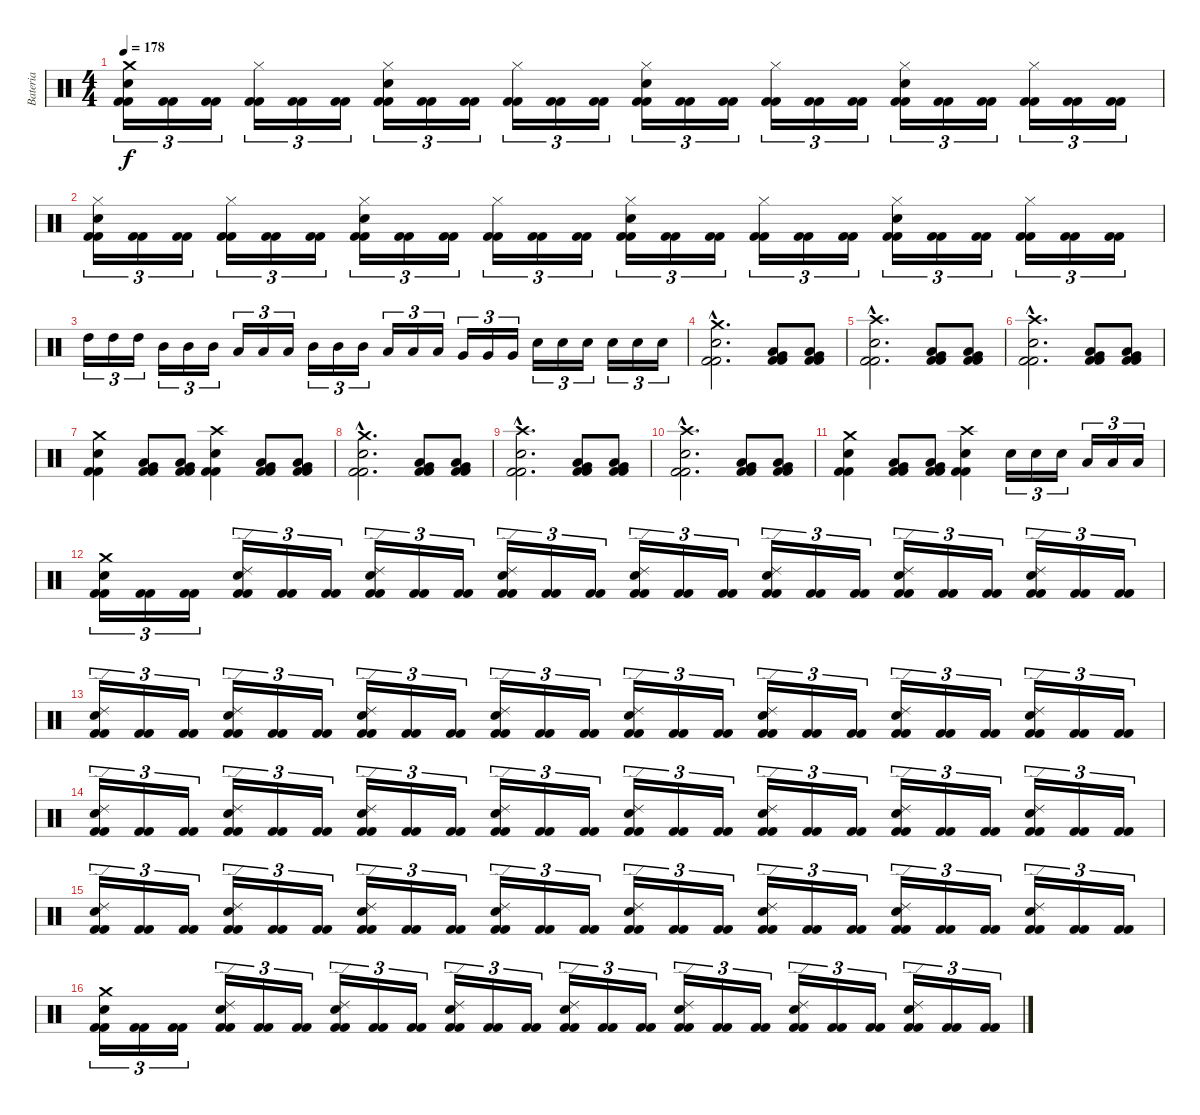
\track ("Bateria" "Bateria") {instrument percussion}
\staff {score}
\articulation defaults
\ts (4 4)
\tempo 178
\clef neutral
\ks c
("Kick (hit) 2" "Kick (hit) 2" "Snare (hit) 2" "Crash medium (hit)").16{tu (3 2) dy f} ("Kick (hit) 2" "Kick (hit) 2").16{tu (3 2)} ("Kick (hit) 2" "Kick (hit) 2").16{tu (3 2)} ("Kick (hit) 2" "Kick (hit) 2" "Hi-Hat (closed)").16{tu (3 2)} ("Kick (hit) 2" "Kick (hit) 2").16{tu (3 2)} ("Kick (hit) 2" "Kick (hit) 2").16{tu (3 2)} ("Kick (hit) 2" "Kick (hit) 2" "Snare (hit) 2" "Hi-Hat (closed)").16{tu (3 2)} ("Kick (hit) 2" "Kick (hit) 2").16{tu (3 2)} ("Kick (hit) 2" "Kick (hit) 2").16{tu (3 2)} ("Kick (hit) 2" "Kick (hit) 2" "Hi-Hat (closed)").16{tu (3 2)} ("Kick (hit) 2" "Kick (hit) 2").16{tu (3 2)} ("Kick (hit) 2" "Kick (hit) 2").16{tu (3 2)} ("Kick (hit) 2" "Kick (hit) 2" "Snare (hit) 2" "Hi-Hat (closed)").16{tu (3 2)} ("Kick (hit) 2" "Kick (hit) 2").16{tu (3 2)} ("Kick (hit) 2" "Kick (hit) 2").16{tu (3 2)} ("Kick (hit) 2" "Kick (hit) 2" "Hi-Hat (closed)").16{tu (3 2)} ("Kick (hit) 2" "Kick (hit) 2").16{tu (3 2)} ("Kick (hit) 2" "Kick (hit) 2").16{tu (3 2)} ("Kick (hit) 2" "Kick (hit) 2" "Snare (hit) 2" "Hi-Hat (closed)").16{tu (3 2)} ("Kick (hit) 2" "Kick (hit) 2").16{tu (3 2)} ("Kick (hit) 2" "Kick (hit) 2").16{tu (3 2)} ("Kick (hit) 2" "Kick (hit) 2" "Hi-Hat (closed)").16{tu (3 2)} ("Kick (hit) 2" "Kick (hit) 2").16{tu (3 2)} ("Kick (hit) 2" "Kick (hit) 2").16{tu (3 2)} |
("Kick (hit) 2" "Kick (hit) 2" "Snare (hit) 2" "Hi-Hat (closed)").16{tu (3 2)} ("Kick (hit) 2" "Kick (hit) 2").16{tu (3 2)} ("Kick (hit) 2" "Kick (hit) 2").16{tu (3 2)} ("Kick (hit) 2" "Kick (hit) 2" "Hi-Hat (closed)").16{tu (3 2)} ("Kick (hit) 2" "Kick (hit) 2").16{tu (3 2)} ("Kick (hit) 2" "Kick (hit) 2").16{tu (3 2)} ("Kick (hit) 2" "Kick (hit) 2" "Snare (hit) 2" "Hi-Hat (closed)").16{tu (3 2)} ("Kick (hit) 2" "Kick (hit) 2").16{tu (3 2)} ("Kick (hit) 2" "Kick (hit) 2").16{tu (3 2)} ("Kick (hit) 2" "Kick (hit) 2" "Hi-Hat (closed)").16{tu (3 2)} ("Kick (hit) 2" "Kick (hit) 2").16{tu (3 2)} ("Kick (hit) 2" "Kick (hit) 2").16{tu (3 2)} ("Kick (hit) 2" "Kick (hit) 2" "Snare (hit) 2" "Hi-Hat (closed)").16{tu (3 2)} ("Kick (hit) 2" "Kick (hit) 2").16{tu (3 2)} ("Kick (hit) 2" "Kick (hit) 2").16{tu (3 2)} ("Kick (hit) 2" "Kick (hit) 2" "Hi-Hat (closed)").16{tu (3 2)} ("Kick (hit) 2" "Kick (hit) 2").16{tu (3 2)} ("Kick (hit) 2" "Kick (hit) 2").16{tu (3 2)} ("Kick (hit) 2" "Kick (hit) 2" "Snare (hit) 2" "Hi-Hat (closed)").16{tu (3 2)} ("Kick (hit) 2" "Kick (hit) 2").16{tu (3 2)} ("Kick (hit) 2" "Kick (hit) 2").16{tu (3 2)} ("Kick (hit) 2" "Kick (hit) 2" "Hi-Hat (closed)").16{tu (3 2)} ("Kick (hit) 2" "Kick (hit) 2").16{tu (3 2)} ("Kick (hit) 2" "Kick (hit) 2").16{tu (3 2)} |
"High Tom (hit)".16{tu (3 2)} "High Tom (hit)".16{tu (3 2)} "High Tom (hit)".16{tu (3 2)} "Mid Tom (hit)".16{tu (3 2)} "Mid Tom (hit)".16{tu (3 2)} "Mid Tom (hit)".16{tu (3 2)} "Low Tom (hit)".16{tu (3 2)} "Low Tom (hit)".16{tu (3 2)} "Low Tom (hit)".16{tu (3 2)} "Mid Tom (hit)".16{tu (3 2)} "Mid Tom (hit)".16{tu (3 2)} "Mid Tom (hit)".16{tu (3 2)} "Low Tom (hit)".16{tu (3 2)} "Low Tom (hit)".16{tu (3 2)} "Low Tom (hit)".16{tu (3 2)} "Very Low Tom (hit)".16{tu (3 2)} "Very Low Tom (hit)".16{tu (3 2)} "Very Low Tom (hit)".16{tu (3 2)} "Snare (hit) 2".16{tu (3 2)} "Snare (hit) 2".16{tu (3 2)} "Snare (hit) 2".16{tu (3 2)} "Snare (hit) 2".16{tu (3 2)} "Snare (hit) 2".16{tu (3 2)} "Snare (hit) 2".16{tu (3 2)} |
("Kick (hit) 2"{hac} "Kick (hit) 2"{hac} "Snare (hit) 2"{hac} "Crash medium (hit)"{hac}).2{d} ("Kick (hit) 2" "Kick (hit) 2" "Low Tom (hit)" "Very Low Tom (hit)").8 ("Kick (hit) 2" "Kick (hit) 2" "Low Tom (hit)" "Very Low Tom (hit)").8 |
("Kick (hit) 2"{hac} "Kick (hit) 2"{hac} "Snare (hit) 2"{hac} "Crash high (hit)"{hac}).2{d} ("Kick (hit) 2" "Kick (hit) 2" "Low Tom (hit)" "Very Low Tom (hit)").8 ("Kick (hit) 2" "Kick (hit) 2" "Low Tom (hit)" "Very Low Tom (hit)").8 |
("Kick (hit) 2"{hac} "Kick (hit) 2"{hac} "Snare (hit) 2"{hac} "Crash high (hit)"{hac}).2{d} ("Kick (hit) 2" "Kick (hit) 2" "Low Tom (hit)" "Very Low Tom (hit)").8 ("Kick (hit) 2" "Kick (hit) 2" "Low Tom (hit)" "Very Low Tom (hit)").8 |
("Kick (hit) 2" "Kick (hit) 2" "Snare (hit) 2" "Crash medium (hit)").4 ("Kick (hit) 2" "Kick (hit) 2" "Low Tom (hit)" "Very Low Tom (hit)").8 ("Kick (hit) 2" "Kick (hit) 2" "Low Tom (hit)" "Very Low Tom (hit)").8 ("Kick (hit) 2" "Kick (hit) 2" "Snare (hit) 2" "Crash high (hit)").4 ("Kick (hit) 2" "Kick (hit) 2" "Low Tom (hit)" "Very Low Tom (hit)").8 ("Kick (hit) 2" "Kick (hit) 2" "Low Tom (hit)" "Very Low Tom (hit)").8 |
("Kick (hit) 2"{hac} "Kick (hit) 2"{hac} "Snare (hit) 2"{hac} "Crash medium (hit)"{hac}).2{d} ("Kick (hit) 2" "Kick (hit) 2" "Low Tom (hit)" "Very Low Tom (hit)").8 ("Kick (hit) 2" "Kick (hit) 2" "Low Tom (hit)" "Very Low Tom (hit)").8 |
("Kick (hit) 2"{hac} "Kick (hit) 2"{hac} "Snare (hit) 2"{hac} "Crash high (hit)"{hac}).2{d} ("Kick (hit) 2" "Kick (hit) 2" "Low Tom (hit)" "Very Low Tom (hit)").8 ("Kick (hit) 2" "Kick (hit) 2" "Low Tom (hit)" "Very Low Tom (hit)").8 |
("Kick (hit) 2"{hac} "Kick (hit) 2"{hac} "Snare (hit) 2"{hac} "Crash high (hit)"{hac}).2{d} ("Kick (hit) 2" "Kick (hit) 2" "Low Tom (hit)" "Very Low Tom (hit)").8 ("Kick (hit) 2" "Kick (hit) 2" "Low Tom (hit)" "Very Low Tom (hit)").8 |
("Kick (hit) 2" "Kick (hit) 2" "Snare (hit) 2" "Crash medium (hit)").4 ("Kick (hit) 2" "Kick (hit) 2" "Low Tom (hit)" "Very Low Tom (hit)").8 ("Kick (hit) 2" "Kick (hit) 2" "Low Tom (hit)" "Very Low Tom (hit)").8 ("Kick (hit) 2" "Kick (hit) 2" "Snare (hit) 2" "Crash high (hit)").4 "Snare (hit) 2".16{tu (3 2)} "Snare (hit) 2".16{tu (3 2)} "Snare (hit) 2".16{tu (3 2)} "Low Tom (hit)".16{tu (3 2)} "Low Tom (hit)".16{tu (3 2)} "Low Tom (hit)".16{tu (3 2)} |
("Kick (hit) 2" "Kick (hit) 2" "Snare (hit) 2" "Crash medium (hit)").16{tu (3 2)} ("Kick (hit) 2" "Kick (hit) 2").16{tu (3 2)} ("Kick (hit) 2" "Kick (hit) 2").16{tu (3 2)} ("Kick (hit) 2" "Kick (hit) 2" "Snare (hit) 2" "Ride (edge) 2").16{tu (3 2)} ("Kick (hit) 2" "Kick (hit) 2").16{tu (3 2)} ("Kick (hit) 2" "Kick (hit) 2").16{tu (3 2)} ("Kick (hit) 2" "Kick (hit) 2" "Snare (hit) 2" "Ride (edge) 2").16{tu (3 2)} ("Kick (hit) 2" "Kick (hit) 2").16{tu (3 2)} ("Kick (hit) 2" "Kick (hit) 2").16{tu (3 2)} ("Kick (hit) 2" "Kick (hit) 2" "Snare (hit) 2" "Ride (edge) 2").16{tu (3 2)} ("Kick (hit) 2" "Kick (hit) 2").16{tu (3 2)} ("Kick (hit) 2" "Kick (hit) 2").16{tu (3 2)} ("Kick (hit) 2" "Kick (hit) 2" "Snare (hit) 2" "Ride (edge) 2").16{tu (3 2)} ("Kick (hit) 2" "Kick (hit) 2").16{tu (3 2)} ("Kick (hit) 2" "Kick (hit) 2").16{tu (3 2)} ("Kick (hit) 2" "Kick (hit) 2" "Snare (hit) 2" "Ride (edge) 2").16{tu (3 2)} ("Kick (hit) 2" "Kick (hit) 2").16{tu (3 2)} ("Kick (hit) 2" "Kick (hit) 2").16{tu (3 2)} ("Kick (hit) 2" "Kick (hit) 2" "Snare (hit) 2" "Ride (edge) 2").16{tu (3 2)} ("Kick (hit) 2" "Kick (hit) 2").16{tu (3 2)} ("Kick (hit) 2" "Kick (hit) 2").16{tu (3 2)} ("Kick (hit) 2" "Kick (hit) 2" "Snare (hit) 2" "Ride (edge) 2").16{tu (3 2)} ("Kick (hit) 2" "Kick (hit) 2").16{tu (3 2)} ("Kick (hit) 2" "Kick (hit) 2").16{tu (3 2)} |
("Kick (hit) 2" "Kick (hit) 2" "Snare (hit) 2" "Ride (edge) 2").16{tu (3 2)} ("Kick (hit) 2" "Kick (hit) 2").16{tu (3 2)} ("Kick (hit) 2" "Kick (hit) 2").16{tu (3 2)} ("Kick (hit) 2" "Kick (hit) 2" "Snare (hit) 2" "Ride (edge) 2").16{tu (3 2)} ("Kick (hit) 2" "Kick (hit) 2").16{tu (3 2)} ("Kick (hit) 2" "Kick (hit) 2").16{tu (3 2)} ("Kick (hit) 2" "Kick (hit) 2" "Snare (hit) 2" "Ride (edge) 2").16{tu (3 2)} ("Kick (hit) 2" "Kick (hit) 2").16{tu (3 2)} ("Kick (hit) 2" "Kick (hit) 2").16{tu (3 2)} ("Kick (hit) 2" "Kick (hit) 2" "Snare (hit) 2" "Ride (edge) 2").16{tu (3 2)} ("Kick (hit) 2" "Kick (hit) 2").16{tu (3 2)} ("Kick (hit) 2" "Kick (hit) 2").16{tu (3 2)} ("Kick (hit) 2" "Kick (hit) 2" "Snare (hit) 2" "Ride (edge) 2").16{tu (3 2)} ("Kick (hit) 2" "Kick (hit) 2").16{tu (3 2)} ("Kick (hit) 2" "Kick (hit) 2").16{tu (3 2)} ("Kick (hit) 2" "Kick (hit) 2" "Snare (hit) 2" "Ride (edge) 2").16{tu (3 2)} ("Kick (hit) 2" "Kick (hit) 2").16{tu (3 2)} ("Kick (hit) 2" "Kick (hit) 2").16{tu (3 2)} ("Kick (hit) 2" "Kick (hit) 2" "Snare (hit) 2" "Ride (edge) 2").16{tu (3 2)} ("Kick (hit) 2" "Kick (hit) 2").16{tu (3 2)} ("Kick (hit) 2" "Kick (hit) 2").16{tu (3 2)} ("Kick (hit) 2" "Kick (hit) 2" "Snare (hit) 2" "Ride (edge) 2").16{tu (3 2)} ("Kick (hit) 2" "Kick (hit) 2").16{tu (3 2)} ("Kick (hit) 2" "Kick (hit) 2").16{tu (3 2)} |
("Kick (hit) 2" "Kick (hit) 2" "Snare (hit) 2" "Ride (edge) 2").16{tu (3 2)} ("Kick (hit) 2" "Kick (hit) 2").16{tu (3 2)} ("Kick (hit) 2" "Kick (hit) 2").16{tu (3 2)} ("Kick (hit) 2" "Kick (hit) 2" "Snare (hit) 2" "Ride (edge) 2").16{tu (3 2)} ("Kick (hit) 2" "Kick (hit) 2").16{tu (3 2)} ("Kick (hit) 2" "Kick (hit) 2").16{tu (3 2)} ("Kick (hit) 2" "Kick (hit) 2" "Snare (hit) 2" "Ride (edge) 2").16{tu (3 2)} ("Kick (hit) 2" "Kick (hit) 2").16{tu (3 2)} ("Kick (hit) 2" "Kick (hit) 2").16{tu (3 2)} ("Kick (hit) 2" "Kick (hit) 2" "Snare (hit) 2" "Ride (edge) 2").16{tu (3 2)} ("Kick (hit) 2" "Kick (hit) 2").16{tu (3 2)} ("Kick (hit) 2" "Kick (hit) 2").16{tu (3 2)} ("Kick (hit) 2" "Kick (hit) 2" "Snare (hit) 2" "Ride (edge) 2").16{tu (3 2)} ("Kick (hit) 2" "Kick (hit) 2").16{tu (3 2)} ("Kick (hit) 2" "Kick (hit) 2").16{tu (3 2)} ("Kick (hit) 2" "Kick (hit) 2" "Snare (hit) 2" "Ride (edge) 2").16{tu (3 2)} ("Kick (hit) 2" "Kick (hit) 2").16{tu (3 2)} ("Kick (hit) 2" "Kick (hit) 2").16{tu (3 2)} ("Kick (hit) 2" "Kick (hit) 2" "Snare (hit) 2" "Ride (edge) 2").16{tu (3 2)} ("Kick (hit) 2" "Kick (hit) 2").16{tu (3 2)} ("Kick (hit) 2" "Kick (hit) 2").16{tu (3 2)} ("Kick (hit) 2" "Kick (hit) 2" "Snare (hit) 2" "Ride (edge) 2").16{tu (3 2)} ("Kick (hit) 2" "Kick (hit) 2").16{tu (3 2)} ("Kick (hit) 2" "Kick (hit) 2").16{tu (3 2)} |
("Kick (hit) 2" "Kick (hit) 2" "Snare (hit) 2" "Ride (edge) 2").16{tu (3 2)} ("Kick (hit) 2" "Kick (hit) 2").16{tu (3 2)} ("Kick (hit) 2" "Kick (hit) 2").16{tu (3 2)} ("Kick (hit) 2" "Kick (hit) 2" "Snare (hit) 2" "Ride (edge) 2").16{tu (3 2)} ("Kick (hit) 2" "Kick (hit) 2").16{tu (3 2)} ("Kick (hit) 2" "Kick (hit) 2").16{tu (3 2)} ("Kick (hit) 2" "Kick (hit) 2" "Snare (hit) 2" "Ride (edge) 2").16{tu (3 2)} ("Kick (hit) 2" "Kick (hit) 2").16{tu (3 2)} ("Kick (hit) 2" "Kick (hit) 2").16{tu (3 2)} ("Kick (hit) 2" "Kick (hit) 2" "Snare (hit) 2" "Ride (edge) 2").16{tu (3 2)} ("Kick (hit) 2" "Kick (hit) 2").16{tu (3 2)} ("Kick (hit) 2" "Kick (hit) 2").16{tu (3 2)} ("Kick (hit) 2" "Kick (hit) 2" "Snare (hit) 2" "Ride (edge) 2").16{tu (3 2)} ("Kick (hit) 2" "Kick (hit) 2").16{tu (3 2)} ("Kick (hit) 2" "Kick (hit) 2").16{tu (3 2)} ("Kick (hit) 2" "Kick (hit) 2" "Snare (hit) 2" "Ride (edge) 2").16{tu (3 2)} ("Kick (hit) 2" "Kick (hit) 2").16{tu (3 2)} ("Kick (hit) 2" "Kick (hit) 2").16{tu (3 2)} ("Kick (hit) 2" "Kick (hit) 2" "Snare (hit) 2" "Ride (edge) 2").16{tu (3 2)} ("Kick (hit) 2" "Kick (hit) 2").16{tu (3 2)} ("Kick (hit) 2" "Kick (hit) 2").16{tu (3 2)} ("Kick (hit) 2" "Kick (hit) 2" "Snare (hit) 2" "Ride (edge) 2").16{tu (3 2)} ("Kick (hit) 2" "Kick (hit) 2").16{tu (3 2)} ("Kick (hit) 2" "Kick (hit) 2").16{tu (3 2)} |
("Kick (hit) 2" "Kick (hit) 2" "Snare (hit) 2" "Crash medium (hit)").16{tu (3 2)} ("Kick (hit) 2" "Kick (hit) 2").16{tu (3 2)} ("Kick (hit) 2" "Kick (hit) 2").16{tu (3 2)} ("Kick (hit) 2" "Kick (hit) 2" "Snare (hit) 2" "Ride (edge) 2").16{tu (3 2)} ("Kick (hit) 2" "Kick (hit) 2").16{tu (3 2)} ("Kick (hit) 2" "Kick (hit) 2").16{tu (3 2)} ("Kick (hit) 2" "Kick (hit) 2" "Snare (hit) 2" "Ride (edge) 2").16{tu (3 2)} ("Kick (hit) 2" "Kick (hit) 2").16{tu (3 2)} ("Kick (hit) 2" "Kick (hit) 2").16{tu (3 2)} ("Kick (hit) 2" "Kick (hit) 2" "Snare (hit) 2" "Ride (edge) 2").16{tu (3 2)} ("Kick (hit) 2" "Kick (hit) 2").16{tu (3 2)} ("Kick (hit) 2" "Kick (hit) 2").16{tu (3 2)} ("Kick (hit) 2" "Kick (hit) 2" "Snare (hit) 2" "Ride (edge) 2").16{tu (3 2)} ("Kick (hit) 2" "Kick (hit) 2").16{tu (3 2)} ("Kick (hit) 2" "Kick (hit) 2").16{tu (3 2)} ("Kick (hit) 2" "Kick (hit) 2" "Snare (hit) 2" "Ride (edge) 2").16{tu (3 2)} ("Kick (hit) 2" "Kick (hit) 2").16{tu (3 2)} ("Kick (hit) 2" "Kick (hit) 2").16{tu (3 2)} ("Kick (hit) 2" "Kick (hit) 2" "Snare (hit) 2" "Ride (edge) 2").16{tu (3 2)} ("Kick (hit) 2" "Kick (hit) 2").16{tu (3 2)} ("Kick (hit) 2" "Kick (hit) 2").16{tu (3 2)} ("Kick (hit) 2" "Kick (hit) 2" "Snare (hit) 2" "Ride (edge) 2").16{tu (3 2)} ("Kick (hit) 2" "Kick (hit) 2").16{tu (3 2)} ("Kick (hit) 2" "Kick (hit) 2").16{tu (3 2)}
